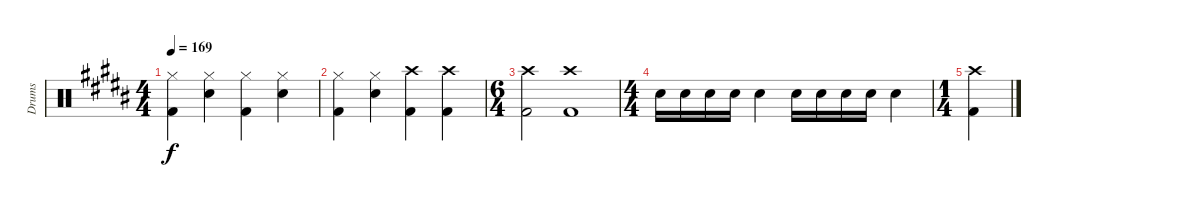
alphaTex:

\track ("Drums" "Drums") {instrument percussion}
\staff {score}
\articulation defaults
\ts (4 4)
\tempo 169
\clef neutral
\ks b
("Hi-Hat (closed)" "Kick (hit) 2").4{dy f} ("Hi-Hat (closed)" "Snare (hit) 2").4 ("Hi-Hat (closed)" "Kick (hit) 2").4 ("Hi-Hat (closed)" "Snare (hit) 2").4 |
("Hi-Hat (closed)" "Kick (hit) 2").4 ("Hi-Hat (closed)" "Snare (hit) 2").4 ("Crash high (hit)" "Kick (hit) 2").4 ("Crash high (hit)" "Kick (hit) 2").4 |
\ts (6 4)
("Crash high (hit)" "Kick (hit) 2").2 ("Crash high (hit)" "Kick (hit) 2").1 |
\ts (4 4)
"Snare (hit) 2".16 "Snare (hit) 2".16 "Snare (hit) 2".16 "Snare (hit) 2".16 "Snare (hit) 2".4 "Snare (hit) 2".16 "Snare (hit) 2".16 "Snare (hit) 2".16 "Snare (hit) 2".16 "Snare (hit) 2".4 |
\ts (1 4)
("Crash high (hit)" "Kick (hit) 2").4
